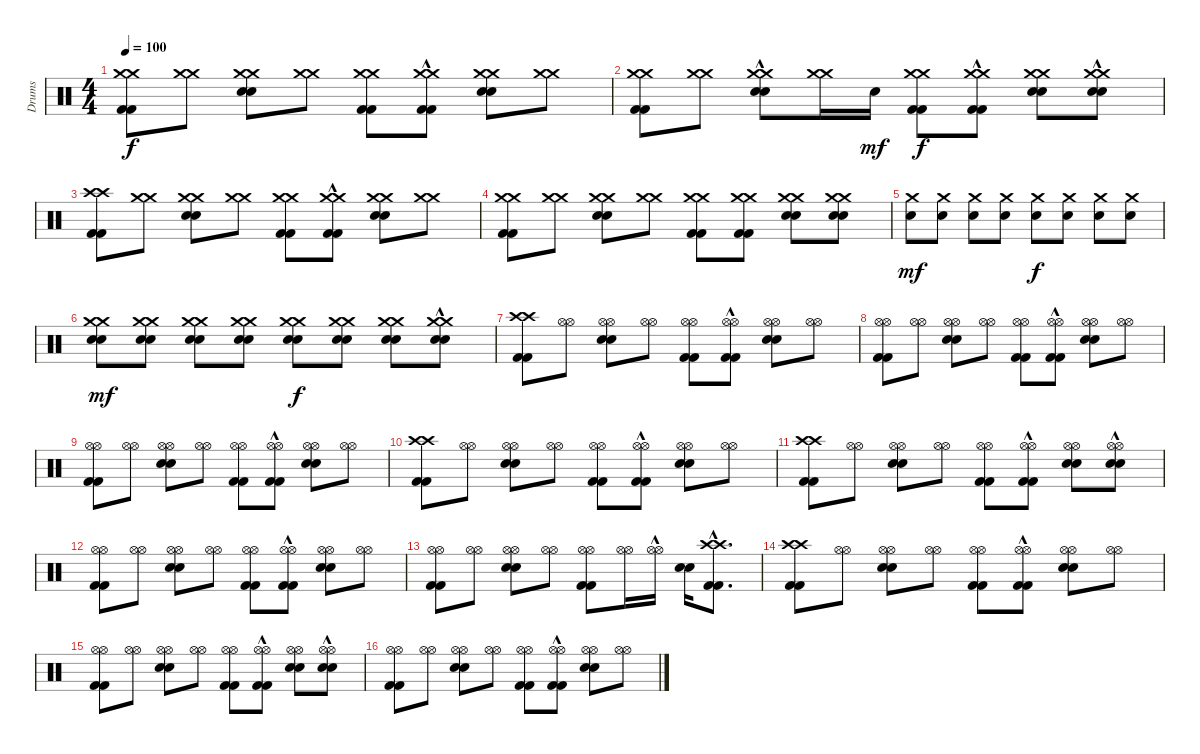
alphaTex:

\track ("Drums" "Drums") {instrument percussion}
\staff {score}
\articulation defaults
\ts (4 4)
\tempo 100
\clef neutral
\ks c
("Kick (hit) 2" "Kick (hit) 2" "Crash medium (hit)" "Crash medium (hit)").8{dy f} ("Crash medium (hit)" "Crash medium (hit)").8 ("Snare (hit) 2" "Snare (hit) 2" "Crash medium (hit)" "Crash medium (hit)").8 ("Crash medium (hit)" "Crash medium (hit)").8 ("Kick (hit) 2" "Kick (hit) 2" "Crash medium (hit)" "Crash medium (hit)").8 ("Kick (hit) 2"{hac} "Kick (hit) 2"{hac} "Crash medium (hit)" "Crash medium (hit)").8 ("Snare (hit) 2" "Snare (hit) 2" "Crash medium (hit)" "Crash medium (hit)").8 ("Crash medium (hit)" "Crash medium (hit)").8 |
("Kick (hit) 2" "Kick (hit) 2" "Crash medium (hit)" "Crash medium (hit)").8 ("Crash medium (hit)" "Crash medium (hit)").8 ("Snare (hit) 2"{hac} "Snare (hit) 2"{hac} "Crash medium (hit)" "Crash medium (hit)").8 ("Crash medium (hit)" "Crash medium (hit)").16 "Snare (hit) 2".16{dy mf} ("Kick (hit) 2" "Kick (hit) 2" "Crash medium (hit)" "Crash medium (hit)").8{dy f} ("Kick (hit) 2"{hac} "Kick (hit) 2"{hac} "Crash medium (hit)" "Crash medium (hit)").8 ("Snare (hit) 2" "Snare (hit) 2" "Crash medium (hit)" "Crash medium (hit)").8 ("Snare (hit) 2"{hac} "Snare (hit) 2"{hac} "Crash medium (hit)" "Crash medium (hit)").8 |
("Kick (hit) 2" "Kick (hit) 2" "Crash high (hit)" "Crash high (hit)").8 ("Crash medium (hit)" "Crash medium (hit)").8 ("Snare (hit) 2" "Snare (hit) 2" "Crash medium (hit)" "Crash medium (hit)").8 ("Crash medium (hit)" "Crash medium (hit)").8 ("Kick (hit) 2" "Kick (hit) 2" "Crash medium (hit)" "Crash medium (hit)").8 ("Kick (hit) 2"{hac} "Kick (hit) 2"{hac} "Crash medium (hit)" "Crash medium (hit)").8 ("Snare (hit) 2" "Snare (hit) 2" "Crash medium (hit)" "Crash medium (hit)").8 ("Crash medium (hit)" "Crash medium (hit)").8 |
("Kick (hit) 2" "Kick (hit) 2" "Crash medium (hit)" "Crash medium (hit)").8 ("Crash medium (hit)" "Crash medium (hit)").8 ("Snare (hit) 2" "Snare (hit) 2" "Crash medium (hit)" "Crash medium (hit)").8 ("Crash medium (hit)" "Crash medium (hit)").8 ("Kick (hit) 2" "Kick (hit) 2" "Crash medium (hit)" "Crash medium (hit)").8 ("Kick (hit) 2" "Kick (hit) 2" "Crash medium (hit)" "Crash medium (hit)").8 ("Snare (hit) 2" "Snare (hit) 2" "Crash medium (hit)" "Crash medium (hit)").8 ("Snare (hit) 2" "Snare (hit) 2" "Crash medium (hit)" "Crash medium (hit)").8 |
("Snare (hit) 2" "Crash medium (hit)").8{dy mf} ("Snare (hit) 2" "Crash medium (hit)").8 ("Snare (hit) 2" "Crash medium (hit)").8 ("Snare (hit) 2" "Crash medium (hit)").8 ("Snare (hit) 2" "Crash medium (hit)").8{dy f} ("Snare (hit) 2" "Crash medium (hit)").8 ("Snare (hit) 2" "Crash medium (hit)").8 ("Snare (hit) 2" "Crash medium (hit)").8 |
("Snare (hit) 2" "Snare (hit) 2" "Crash medium (hit)" "Crash medium (hit)").8{dy mf} ("Snare (hit) 2" "Snare (hit) 2" "Crash medium (hit)" "Crash medium (hit)").8 ("Snare (hit) 2" "Snare (hit) 2" "Crash medium (hit)" "Crash medium (hit)").8 ("Snare (hit) 2" "Snare (hit) 2" "Crash medium (hit)" "Crash medium (hit)").8 ("Snare (hit) 2" "Snare (hit) 2" "Crash medium (hit)" "Crash medium (hit)").8{dy f} ("Snare (hit) 2" "Snare (hit) 2" "Crash medium (hit)" "Crash medium (hit)").8 ("Snare (hit) 2" "Snare (hit) 2" "Crash medium (hit)" "Crash medium (hit)").8 ("Snare (hit) 2"{hac} "Snare (hit) 2"{hac} "Crash medium (hit)" "Crash medium (hit)").8 |
("Kick (hit) 2" "Kick (hit) 2" "Crash high (hit)" "Crash high (hit)").8 ("Hi-Hat (open)" "Hi-Hat (open)").8 ("Snare (hit) 2" "Snare (hit) 2" "Hi-Hat (open)" "Hi-Hat (open)").8 ("Hi-Hat (open)" "Hi-Hat (open)").8 ("Kick (hit) 2" "Kick (hit) 2" "Hi-Hat (open)" "Hi-Hat (open)").8 ("Kick (hit) 2"{hac} "Kick (hit) 2"{hac} "Hi-Hat (open)" "Hi-Hat (open)").8 ("Snare (hit) 2" "Snare (hit) 2" "Hi-Hat (open)" "Hi-Hat (open)").8 ("Hi-Hat (open)" "Hi-Hat (open)").8 |
("Kick (hit) 2" "Kick (hit) 2" "Hi-Hat (open)" "Hi-Hat (open)").8 ("Hi-Hat (open)" "Hi-Hat (open)").8 ("Snare (hit) 2" "Snare (hit) 2" "Hi-Hat (open)" "Hi-Hat (open)").8 ("Hi-Hat (open)" "Hi-Hat (open)").8 ("Kick (hit) 2" "Kick (hit) 2" "Hi-Hat (open)" "Hi-Hat (open)").8 ("Kick (hit) 2"{hac} "Kick (hit) 2"{hac} "Hi-Hat (open)" "Hi-Hat (open)").8 ("Snare (hit) 2" "Snare (hit) 2" "Hi-Hat (open)" "Hi-Hat (open)").8 ("Hi-Hat (open)" "Hi-Hat (open)").8 |
("Kick (hit) 2" "Kick (hit) 2" "Hi-Hat (open)" "Hi-Hat (open)").8 ("Hi-Hat (open)" "Hi-Hat (open)").8 ("Snare (hit) 2" "Snare (hit) 2" "Hi-Hat (open)" "Hi-Hat (open)").8 ("Hi-Hat (open)" "Hi-Hat (open)").8 ("Kick (hit) 2" "Kick (hit) 2" "Hi-Hat (open)" "Hi-Hat (open)").8 ("Kick (hit) 2"{hac} "Kick (hit) 2"{hac} "Hi-Hat (open)" "Hi-Hat (open)").8 ("Snare (hit) 2" "Snare (hit) 2" "Hi-Hat (open)" "Hi-Hat (open)").8 ("Hi-Hat (open)" "Hi-Hat (open)").8 |
("Kick (hit) 2" "Kick (hit) 2" "Crash high (hit)" "Crash high (hit)").8 ("Hi-Hat (open)" "Hi-Hat (open)").8 ("Snare (hit) 2" "Snare (hit) 2" "Hi-Hat (open)" "Hi-Hat (open)").8 ("Hi-Hat (open)" "Hi-Hat (open)").8 ("Kick (hit) 2" "Kick (hit) 2" "Hi-Hat (open)" "Hi-Hat (open)").8 ("Kick (hit) 2"{hac} "Kick (hit) 2"{hac} "Hi-Hat (open)" "Hi-Hat (open)").8 ("Snare (hit) 2" "Snare (hit) 2" "Hi-Hat (open)" "Hi-Hat (open)").8 ("Hi-Hat (open)" "Hi-Hat (open)").8 |
("Kick (hit) 2" "Kick (hit) 2" "Crash high (hit)" "Crash high (hit)").8 ("Hi-Hat (open)" "Hi-Hat (open)").8 ("Snare (hit) 2" "Snare (hit) 2" "Hi-Hat (open)" "Hi-Hat (open)").8 ("Hi-Hat (open)" "Hi-Hat (open)").8 ("Kick (hit) 2" "Kick (hit) 2" "Hi-Hat (open)" "Hi-Hat (open)").8 ("Kick (hit) 2"{hac} "Kick (hit) 2"{hac} "Hi-Hat (open)" "Hi-Hat (open)").8 ("Snare (hit) 2" "Snare (hit) 2" "Hi-Hat (open)" "Hi-Hat (open)").8 ("Snare (hit) 2"{hac} "Snare (hit) 2"{hac} "Hi-Hat (open)" "Hi-Hat (open)").8 |
("Kick (hit) 2" "Kick (hit) 2" "Hi-Hat (open)" "Hi-Hat (open)").8 ("Hi-Hat (open)" "Hi-Hat (open)").8 ("Snare (hit) 2" "Snare (hit) 2" "Hi-Hat (open)" "Hi-Hat (open)").8 ("Hi-Hat (open)" "Hi-Hat (open)").8 ("Kick (hit) 2" "Kick (hit) 2" "Hi-Hat (open)" "Hi-Hat (open)").8 ("Kick (hit) 2"{hac} "Kick (hit) 2"{hac} "Hi-Hat (open)" "Hi-Hat (open)").8 ("Snare (hit) 2" "Snare (hit) 2" "Hi-Hat (open)" "Hi-Hat (open)").8 ("Hi-Hat (open)" "Hi-Hat (open)").8 |
("Kick (hit) 2" "Kick (hit) 2" "Hi-Hat (open)" "Hi-Hat (open)").8 ("Hi-Hat (open)" "Hi-Hat (open)").8 ("Snare (hit) 2" "Snare (hit) 2" "Hi-Hat (open)" "Hi-Hat (open)").8 ("Hi-Hat (open)" "Hi-Hat (open)").8 ("Kick (hit) 2" "Kick (hit) 2" "Hi-Hat (open)" "Hi-Hat (open)").8 ("Hi-Hat (open)" "Hi-Hat (open)").16 ("Hi-Hat (open)"{hac} "Hi-Hat (open)"{hac}).16 ("Snare (hit) 2" "Snare (hit) 2").16 ("Kick (hit) 2"{hac} "Kick (hit) 2"{hac} "Crash high (hit)"{hac} "Crash high (hit)"{hac}).8{d} |
("Kick (hit) 2" "Kick (hit) 2" "Crash high (hit)" "Crash high (hit)").8 ("Hi-Hat (open)" "Hi-Hat (open)").8 ("Snare (hit) 2" "Snare (hit) 2" "Hi-Hat (open)" "Hi-Hat (open)").8 ("Hi-Hat (open)" "Hi-Hat (open)").8 ("Kick (hit) 2" "Kick (hit) 2" "Hi-Hat (open)" "Hi-Hat (open)").8 ("Kick (hit) 2"{hac} "Kick (hit) 2"{hac} "Hi-Hat (open)" "Hi-Hat (open)").8 ("Snare (hit) 2" "Snare (hit) 2" "Hi-Hat (open)" "Hi-Hat (open)").8 ("Hi-Hat (open)" "Hi-Hat (open)").8 |
("Kick (hit) 2" "Kick (hit) 2" "Hi-Hat (open)" "Hi-Hat (open)").8 ("Hi-Hat (open)" "Hi-Hat (open)").8 ("Snare (hit) 2" "Snare (hit) 2" "Hi-Hat (open)" "Hi-Hat (open)").8 ("Hi-Hat (open)" "Hi-Hat (open)").8 ("Kick (hit) 2" "Kick (hit) 2" "Hi-Hat (open)" "Hi-Hat (open)").8 ("Kick (hit) 2"{hac} "Kick (hit) 2"{hac} "Hi-Hat (open)" "Hi-Hat (open)").8 ("Snare (hit) 2" "Snare (hit) 2" "Hi-Hat (open)" "Hi-Hat (open)").8 ("Snare (hit) 2"{hac} "Snare (hit) 2"{hac} "Hi-Hat (open)" "Hi-Hat (open)").8 |
("Kick (hit) 2" "Kick (hit) 2" "Hi-Hat (open)" "Hi-Hat (open)").8 ("Hi-Hat (open)" "Hi-Hat (open)").8 ("Snare (hit) 2" "Snare (hit) 2" "Hi-Hat (open)" "Hi-Hat (open)").8 ("Hi-Hat (open)" "Hi-Hat (open)").8 ("Kick (hit) 2" "Kick (hit) 2" "Hi-Hat (open)" "Hi-Hat (open)").8 ("Kick (hit) 2"{hac} "Kick (hit) 2"{hac} "Hi-Hat (open)" "Hi-Hat (open)").8 ("Snare (hit) 2" "Snare (hit) 2" "Hi-Hat (open)" "Hi-Hat (open)").8 ("Hi-Hat (open)" "Hi-Hat (open)").8
